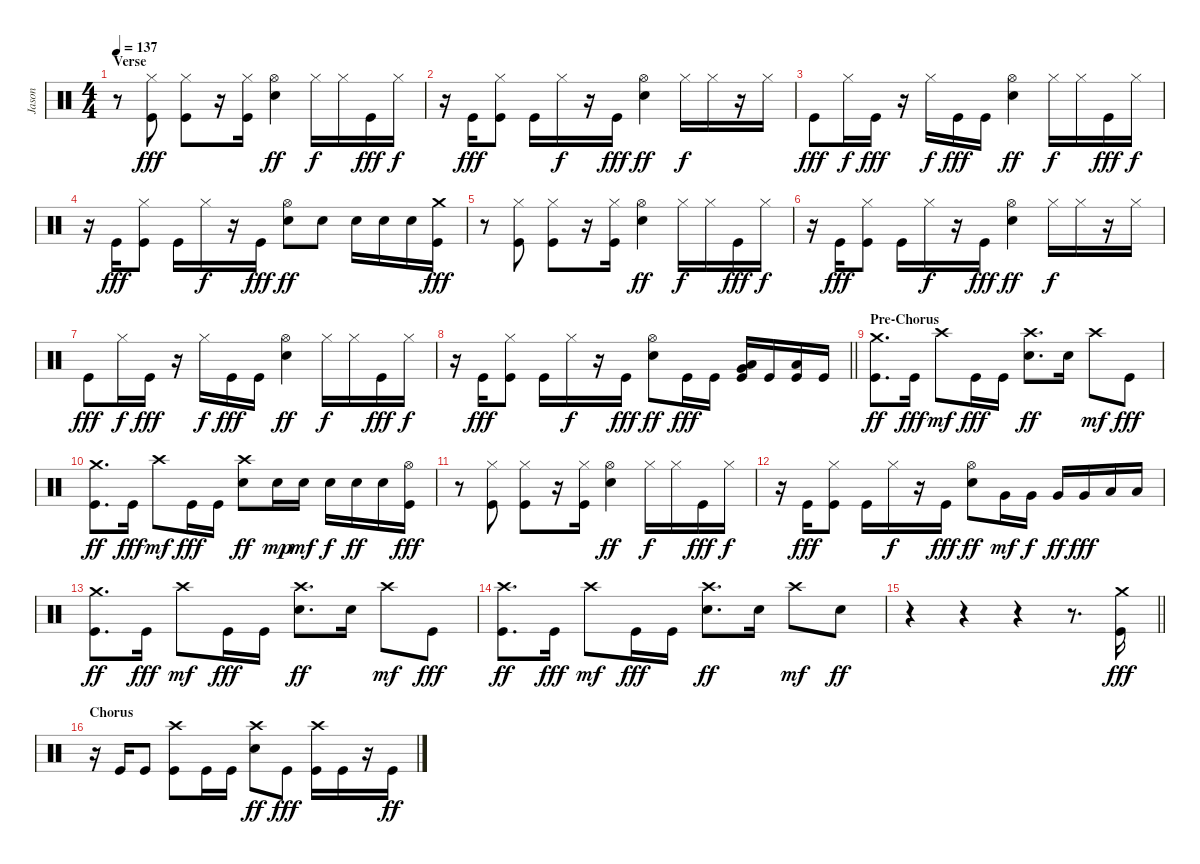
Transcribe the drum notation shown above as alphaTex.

\track ("Jason" "Jason") {instrument percussion}
\staff {score}
\articulation defaults
\ts (4 4)
\section ("" "Verse")
\tempo 137
\clef neutral
\ks c
r.8{dy fff} ("Hi-Hat (closed)" "Kick (hit)").8 ("Hi-Hat (closed)" "Kick (hit)").8 r.16 ("Hi-Hat (closed)" "Kick (hit)").16 ("Hi-Hat (open)" "Electric Snare (hit)").4{dy ff} "Hi-Hat (closed)".16{dy f} "Hi-Hat (closed)".16 "Kick (hit)".16{dy fff} "Hi-Hat (closed)".16{dy f} |
r.16 "Kick (hit)".16{dy fff} ("Hi-Hat (closed)" "Kick (hit)").8 "Kick (hit)".16 "Hi-Hat (closed)".16{dy f} r.16 "Kick (hit)".16{dy fff} ("Hi-Hat (open)" "Electric Snare (hit)").4{dy ff} "Hi-Hat (closed)".16{dy f} "Hi-Hat (closed)".16 r.16 "Hi-Hat (closed)".16 |
"Kick (hit)".8{dy fff} "Hi-Hat (closed)".16{dy f} "Kick (hit)".16{dy fff} r.16 "Hi-Hat (closed)".16{dy f} "Kick (hit)".16{dy fff} "Kick (hit)".16 ("Hi-Hat (open)" "Electric Snare (hit)").4{dy ff} "Hi-Hat (closed)".16{dy f} "Hi-Hat (closed)".16 "Kick (hit)".16{dy fff} "Hi-Hat (closed)".16{dy f} |
r.16 "Kick (hit)".16{dy fff} ("Hi-Hat (closed)" "Kick (hit)").8 "Kick (hit)".16 "Hi-Hat (closed)".16{dy f} r.16 "Kick (hit)".16{dy fff} ("Hi-Hat (open)" "Electric Snare (hit)").8{dy ff} "Electric Snare (hit)".8 "Electric Snare (hit)".16 "Electric Snare (hit)".16 "Electric Snare (hit)".16 ("Crash medium (hit)" "Kick (hit)").16{dy fff} |
r.8 ("Hi-Hat (closed)" "Kick (hit)").8 ("Hi-Hat (closed)" "Kick (hit)").8 r.16 ("Hi-Hat (closed)" "Kick (hit)").16 ("Hi-Hat (open)" "Electric Snare (hit)").4{dy ff} "Hi-Hat (closed)".16{dy f} "Hi-Hat (closed)".16 "Kick (hit)".16{dy fff} "Hi-Hat (closed)".16{dy f} |
r.16 "Kick (hit)".16{dy fff} ("Hi-Hat (closed)" "Kick (hit)").8 "Kick (hit)".16 "Hi-Hat (closed)".16{dy f} r.16 "Kick (hit)".16{dy fff} ("Hi-Hat (open)" "Electric Snare (hit)").4{dy ff} "Hi-Hat (closed)".16{dy f} "Hi-Hat (closed)".16 r.16 "Hi-Hat (closed)".16 |
"Kick (hit)".8{dy fff} "Hi-Hat (closed)".16{dy f} "Kick (hit)".16{dy fff} r.16 "Hi-Hat (closed)".16{dy f} "Kick (hit)".16{dy fff} "Kick (hit)".16 ("Hi-Hat (open)" "Electric Snare (hit)").4{dy ff} "Hi-Hat (closed)".16{dy f} "Hi-Hat (closed)".16 "Kick (hit)".16{dy fff} "Hi-Hat (closed)".16{dy f} |
\barLineRight lightlight
r.16 "Kick (hit)".16{dy fff} ("Hi-Hat (closed)" "Kick (hit)").8 "Kick (hit)".16 "Hi-Hat (closed)".16{dy f} r.16 "Kick (hit)".16{dy fff} ("Hi-Hat (open)" "Electric Snare (hit)").8{dy ff} "Kick (hit)".16{dy fff} "Kick (hit)".16 ("Very Low Tom (hit)" "Low Floor Tom (hit)" "Kick (hit)").16 "Kick (hit)".16 ("Low Floor Tom (hit)" "Kick (hit)").16 "Kick (hit)".16 |
\section ("" "Pre-Chorus")
("Crash medium (hit)" "Kick (hit)").8{d dy ff} "Kick (hit)".16{dy fff} "Crash high (hit)".8{dy mf} "Kick (hit)".16{dy fff} "Kick (hit)".16 ("Crash high (hit)" "Electric Snare (hit)").8{d dy ff} "Electric Snare (hit)".16 "Crash high (hit)".8{dy mf} "Kick (hit)".8{dy fff} |
("Crash medium (hit)" "Kick (hit)").8{d dy ff} "Kick (hit)".16{dy fff} "Crash high (hit)".8{dy mf} "Kick (hit)".16{dy fff} "Kick (hit)".16 ("Crash high (hit)" "Electric Snare (hit)").8{dy ff} "Electric Snare (hit)".16{dy mp} "Electric Snare (hit)".16{dy mf} "Electric Snare (hit)".16{dy f} "Electric Snare (hit)".16{dy ff} "Electric Snare (hit)".16 ("Hi-Hat (open)" "Kick (hit)").16{dy fff} |
r.8 ("Hi-Hat (closed)" "Kick (hit)").8 ("Hi-Hat (closed)" "Kick (hit)").8 r.16 ("Hi-Hat (closed)" "Kick (hit)").16 ("Hi-Hat (open)" "Electric Snare (hit)").4{dy ff} "Hi-Hat (closed)".16{dy f} "Hi-Hat (closed)".16 "Kick (hit)".16{dy fff} "Hi-Hat (closed)".16{dy f} |
r.16 "Kick (hit)".16{dy fff} ("Hi-Hat (closed)" "Kick (hit)").8 "Kick (hit)".16 "Hi-Hat (closed)".16{dy f} r.16 "Kick (hit)".16{dy fff} ("Hi-Hat (open)" "Electric Snare (hit)").8{dy ff} "Very Low Tom (hit)".16{dy mf} "Very Low Tom (hit)".16{dy f} "Very Low Tom (hit)".16{dy ff} "Very Low Tom (hit)".16{dy fff} "Low Floor Tom (hit)".16 "Low Floor Tom (hit)".16 |
("Crash medium (hit)" "Kick (hit)").8{d dy ff} "Kick (hit)".16{dy fff} "Crash high (hit)".8{dy mf} "Kick (hit)".16{dy fff} "Kick (hit)".16 ("Crash high (hit)" "Electric Snare (hit)").8{d dy ff} "Electric Snare (hit)".16 "Crash high (hit)".8{dy mf} "Kick (hit)".8{dy fff} |
("Crash high (hit)" "Kick (hit)").8{d dy ff} "Kick (hit)".16{dy fff} "Crash high (hit)".8{dy mf} "Kick (hit)".16{dy fff} "Kick (hit)".16 ("Crash high (hit)" "Electric Snare (hit)").8{d dy ff} "Electric Snare (hit)".16 "Crash high (hit)".8{dy mf} "Electric Snare (hit)".8{dy ff} |
\barLineRight lightlight
r.4 r.4 r.4 r.8{d} ("Crash medium (hit)" "Kick (hit)").16{dy fff} |
\section ("" "Chorus")
r.16 "Kick (hit)".16 "Kick (hit)".8 ("Crash high (hit)" "Kick (hit)").8 "Kick (hit)".16 "Kick (hit)".16 ("Crash high (hit)" "Electric Snare (hit)").8{dy ff} "Kick (hit)".8{dy fff} ("Crash high (hit)" "Kick (hit)").16 "Kick (hit)".16 r.16 "Kick (hit)".16{dy ff}
